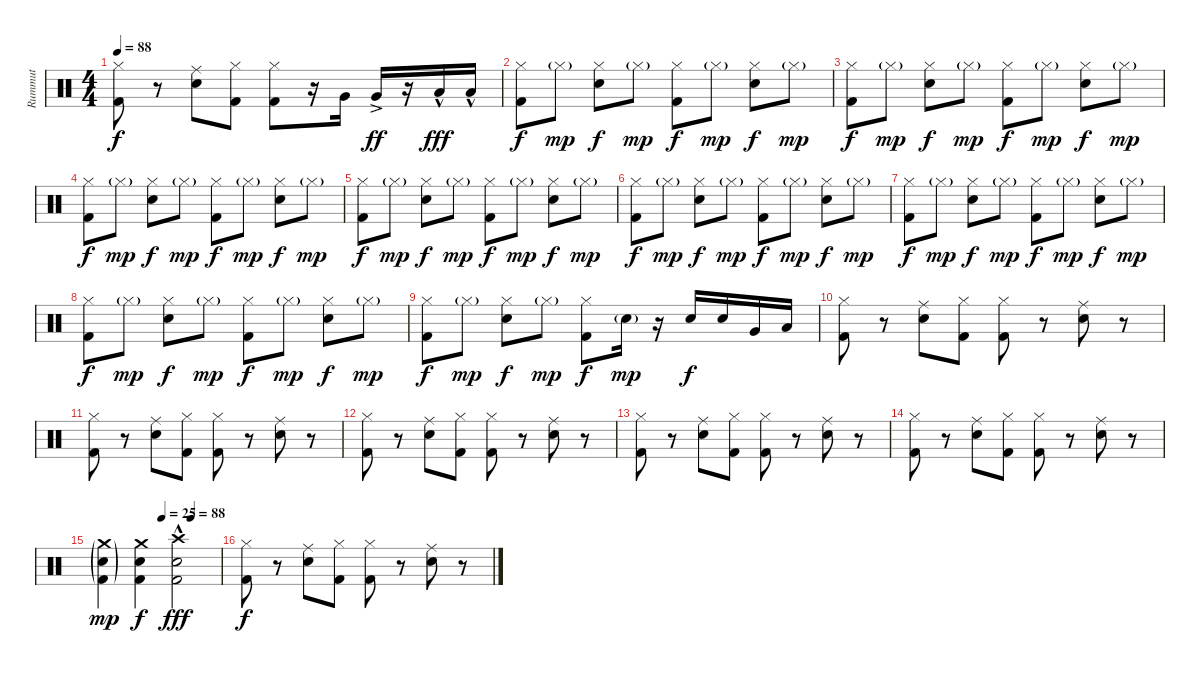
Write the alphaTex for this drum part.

\track ("Rummut" "Rummut") {instrument percussion}
\staff {score}
\articulation defaults
\ts (4 4)
\tempo 88
\clef neutral
\ks c
("Hi-Hat (closed)" "Kick (hit) 2").8{dy f} r.8 ("Ride (middle)" "Electric Snare (hit)").8 ("Hi-Hat (closed)" "Kick (hit) 2").8 ("Hi-Hat (closed)" "Kick (hit) 2").8 r.16 "Very Low Tom (hit)".16 "Very Low Tom (hit)"{ac}.16{dy ff} r.16 "Low Floor Tom (hit)"{hac}.16{dy fff} "Low Floor Tom (hit)"{hac}.16 |
("Hi-Hat (closed)" "Kick (hit) 2").8{dy f} "Hi-Hat (closed)"{g}.8{dy mp} ("Hi-Hat (closed)" "Snare (hit) 2").8{dy f} "Hi-Hat (closed)"{g}.8{dy mp} ("Hi-Hat (closed)" "Kick (hit) 2").8{dy f} "Hi-Hat (closed)"{g}.8{dy mp} ("Hi-Hat (closed)" "Snare (hit) 2").8{dy f} "Hi-Hat (closed)"{g}.8{dy mp} |
("Hi-Hat (closed)" "Kick (hit) 2").8{dy f} "Hi-Hat (closed)"{g}.8{dy mp} ("Hi-Hat (closed)" "Snare (hit) 2").8{dy f} "Hi-Hat (closed)"{g}.8{dy mp} ("Hi-Hat (closed)" "Kick (hit) 2").8{dy f} "Hi-Hat (closed)"{g}.8{dy mp} ("Hi-Hat (closed)" "Snare (hit) 2").8{dy f} "Hi-Hat (closed)"{g}.8{dy mp} |
("Hi-Hat (closed)" "Kick (hit) 2").8{dy f} "Hi-Hat (closed)"{g}.8{dy mp} ("Hi-Hat (closed)" "Snare (hit) 2").8{dy f} "Hi-Hat (closed)"{g}.8{dy mp} ("Hi-Hat (closed)" "Kick (hit) 2").8{dy f} "Hi-Hat (closed)"{g}.8{dy mp} ("Hi-Hat (closed)" "Snare (hit) 2").8{dy f} "Hi-Hat (closed)"{g}.8{dy mp} |
("Hi-Hat (closed)" "Kick (hit) 2").8{dy f} "Hi-Hat (closed)"{g}.8{dy mp} ("Hi-Hat (closed)" "Snare (hit) 2").8{dy f} "Hi-Hat (closed)"{g}.8{dy mp} ("Hi-Hat (closed)" "Kick (hit) 2").8{dy f} "Hi-Hat (closed)"{g}.8{dy mp} ("Hi-Hat (closed)" "Snare (hit) 2").8{dy f} "Hi-Hat (closed)"{g}.8{dy mp} |
("Hi-Hat (closed)" "Kick (hit) 2").8{dy f} "Hi-Hat (closed)"{g}.8{dy mp} ("Hi-Hat (closed)" "Snare (hit) 2").8{dy f} "Hi-Hat (closed)"{g}.8{dy mp} ("Hi-Hat (closed)" "Kick (hit) 2").8{dy f} "Hi-Hat (closed)"{g}.8{dy mp} ("Hi-Hat (closed)" "Snare (hit) 2").8{dy f} "Hi-Hat (closed)"{g}.8{dy mp} |
("Hi-Hat (closed)" "Kick (hit) 2").8{dy f} "Hi-Hat (closed)"{g}.8{dy mp} ("Hi-Hat (closed)" "Snare (hit) 2").8{dy f} "Hi-Hat (closed)"{g}.8{dy mp} ("Hi-Hat (closed)" "Kick (hit) 2").8{dy f} "Hi-Hat (closed)"{g}.8{dy mp} ("Hi-Hat (closed)" "Snare (hit) 2").8{dy f} "Hi-Hat (closed)"{g}.8{dy mp} |
("Hi-Hat (closed)" "Kick (hit) 2").8{dy f} "Hi-Hat (closed)"{g}.8{dy mp} ("Hi-Hat (closed)" "Snare (hit) 2").8{dy f} "Hi-Hat (closed)"{g}.8{dy mp} ("Hi-Hat (closed)" "Kick (hit) 2").8{dy f} "Hi-Hat (closed)"{g}.8{dy mp} ("Hi-Hat (closed)" "Snare (hit) 2").8{dy f} "Hi-Hat (closed)"{g}.8{dy mp} |
("Hi-Hat (closed)" "Kick (hit) 2").8{dy f} "Hi-Hat (closed)"{g}.8{dy mp} ("Hi-Hat (closed)" "Snare (hit) 2").8{dy f} "Hi-Hat (closed)"{g}.8{dy mp} ("Hi-Hat (closed)" "Kick (hit) 2").8{dy f} "Snare (hit) 2"{g}.16{dy mp} r.16 "Snare (hit) 2".16{dy f} "Snare (hit) 2".16 "Very Low Tom (hit)".16 "Low Floor Tom (hit)".16 |
("Hi-Hat (closed)" "Kick (hit) 2").8 r.8 ("Ride (middle)" "Electric Snare (hit)").8 ("Hi-Hat (closed)" "Kick (hit) 2").8 ("Hi-Hat (closed)" "Kick (hit) 2").8 r.8 ("Ride (middle)" "Electric Snare (hit)").8 r.8 |
("Hi-Hat (closed)" "Kick (hit) 2").8 r.8 ("Ride (middle)" "Electric Snare (hit)").8 ("Hi-Hat (closed)" "Kick (hit) 2").8 ("Hi-Hat (closed)" "Kick (hit) 2").8 r.8 ("Ride (middle)" "Electric Snare (hit)").8 r.8 |
("Hi-Hat (closed)" "Kick (hit) 2").8 r.8 ("Ride (middle)" "Electric Snare (hit)").8 ("Hi-Hat (closed)" "Kick (hit) 2").8 ("Hi-Hat (closed)" "Kick (hit) 2").8 r.8 ("Ride (middle)" "Electric Snare (hit)").8 r.8 |
("Hi-Hat (closed)" "Kick (hit) 2").8 r.8 ("Ride (middle)" "Electric Snare (hit)").8 ("Hi-Hat (closed)" "Kick (hit) 2").8 ("Hi-Hat (closed)" "Kick (hit) 2").8 r.8 ("Ride (middle)" "Electric Snare (hit)").8 r.8 |
("Hi-Hat (closed)" "Kick (hit) 2").8 r.8 ("Ride (middle)" "Electric Snare (hit)").8 ("Hi-Hat (closed)" "Kick (hit) 2").8 ("Hi-Hat (closed)" "Kick (hit) 2").8 r.8 ("Ride (middle)" "Electric Snare (hit)").8 r.8 |
\tempo (25 0.5)
\tempo (88 0.75)
("Crash medium (hit)"{g} "Snare (hit) 2"{g} "Kick (hit) 2"{g}).4{dy mp} ("Crash medium (hit)" "Snare (hit) 2" "Kick (hit) 2").4{dy f} ("Crash high (hit)"{hac} "Snare (hit) 2"{hac} "Kick (hit) 2"{hac}).2{dy fff} |
("Hi-Hat (closed)" "Kick (hit) 2").8{dy f} r.8 ("Ride (middle)" "Electric Snare (hit)").8 ("Hi-Hat (closed)" "Kick (hit) 2").8 ("Hi-Hat (closed)" "Kick (hit) 2").8 r.8 ("Ride (middle)" "Electric Snare (hit)").8 r.8
